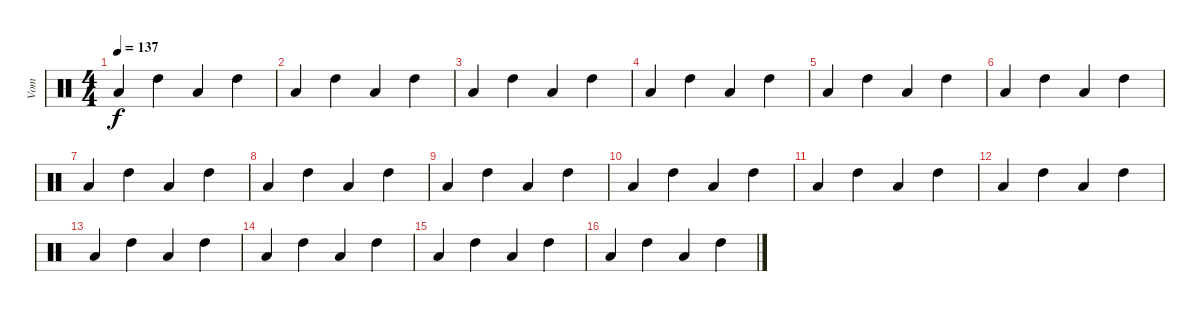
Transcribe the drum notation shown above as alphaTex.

\track ("Vom" "Vom") {instrument percussion}
\staff {score}
\articulation defaults
\ts (4 4)
\tempo 137
\clef neutral
\ks c "Low Tom (hit)".4{dy f} "High Tom (hit)".4 "Low Tom (hit)".4 "High Tom (hit)".4
|
"Low Tom (hit)".4 "High Tom (hit)".4 "Low Tom (hit)".4 "High Tom (hit)".4 |
"Low Tom (hit)".4 "High Tom (hit)".4 "Low Tom (hit)".4 "High Tom (hit)".4 |
"Low Tom (hit)".4 "High Tom (hit)".4 "Low Tom (hit)".4 "High Tom (hit)".4 |
"Low Tom (hit)".4 "High Tom (hit)".4 "Low Tom (hit)".4 "High Tom (hit)".4 |
"Low Tom (hit)".4 "High Tom (hit)".4 "Low Tom (hit)".4 "High Tom (hit)".4 |
"Low Tom (hit)".4 "High Tom (hit)".4 "Low Tom (hit)".4 "High Tom (hit)".4 |
"Low Tom (hit)".4 "High Tom (hit)".4 "Low Tom (hit)".4 "High Tom (hit)".4 |
"Low Tom (hit)".4 "High Tom (hit)".4 "Low Tom (hit)".4 "High Tom (hit)".4 |
"Low Tom (hit)".4 "High Tom (hit)".4 "Low Tom (hit)".4 "High Tom (hit)".4 |
"Low Tom (hit)".4 "High Tom (hit)".4 "Low Tom (hit)".4 "High Tom (hit)".4 |
"Low Tom (hit)".4 "High Tom (hit)".4 "Low Tom (hit)".4 "High Tom (hit)".4 |
"Low Tom (hit)".4 "High Tom (hit)".4 "Low Tom (hit)".4 "High Tom (hit)".4 |
"Low Tom (hit)".4 "High Tom (hit)".4 "Low Tom (hit)".4 "High Tom (hit)".4 |
"Low Tom (hit)".4 "High Tom (hit)".4 "Low Tom (hit)".4 "High Tom (hit)".4 |
"Low Tom (hit)".4 "High Tom (hit)".4 "Low Tom (hit)".4 "High Tom (hit)".4
